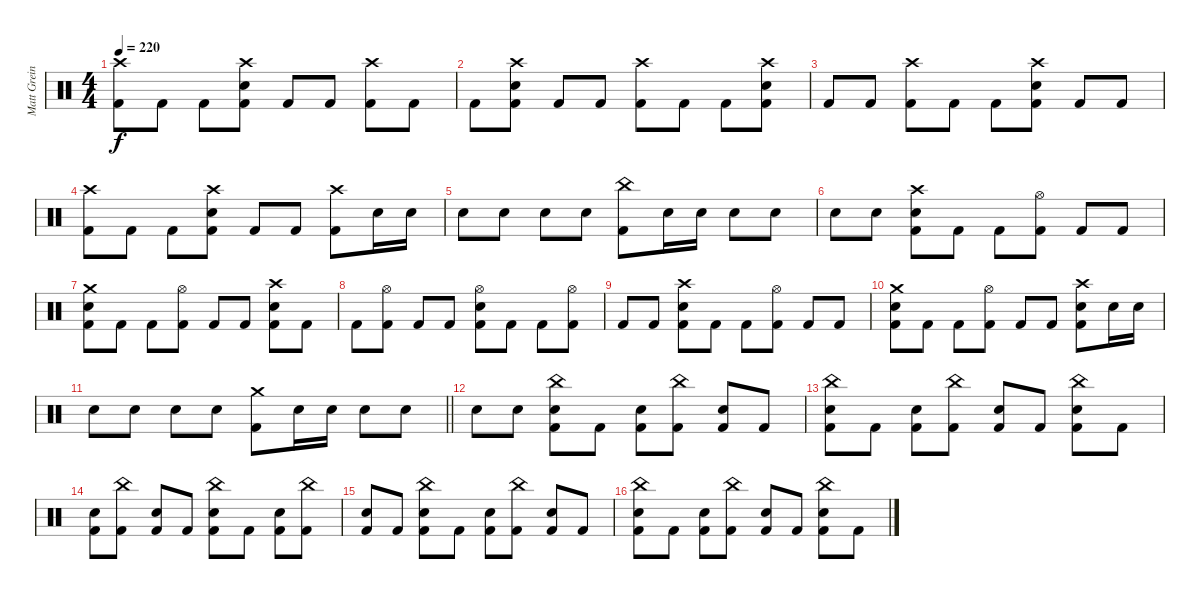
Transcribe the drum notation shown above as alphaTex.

\track ("Matt Greiner (Drums)" "Matt Grein") {instrument percussion}
\staff {score}
\articulation defaults
\ts (4 4)
\tempo 220
\clef neutral
\ks c
("Crash high (hit)" "Kick (hit) 2").8{dy f} "Kick (hit) 2".8 "Kick (hit) 2".8 ("Crash high (hit)" "Electric Snare (hit)" "Kick (hit) 2").8 "Kick (hit) 2".8 "Kick (hit) 2".8 ("Crash high (hit)" "Kick (hit) 2").8 "Kick (hit) 2".8 |
"Kick (hit) 2".8 ("Crash high (hit)" "Electric Snare (hit)" "Kick (hit) 2").8 "Kick (hit) 2".8 "Kick (hit) 2".8 ("Crash high (hit)" "Kick (hit) 2").8 "Kick (hit) 2".8 "Kick (hit) 2".8 ("Crash high (hit)" "Electric Snare (hit)" "Kick (hit) 2").8 |
"Kick (hit) 2".8 "Kick (hit) 2".8 ("Crash high (hit)" "Kick (hit) 2").8 "Kick (hit) 2".8 "Kick (hit) 2".8 ("Crash high (hit)" "Electric Snare (hit)" "Kick (hit) 2").8 "Kick (hit) 2".8 "Kick (hit) 2".8 |
("Crash high (hit)" "Kick (hit) 2").8 "Kick (hit) 2".8 "Kick (hit) 2".8 ("Crash high (hit)" "Electric Snare (hit)" "Kick (hit) 2").8 "Kick (hit) 2".8 "Kick (hit) 2".8 ("Crash high (hit)" "Kick (hit) 2").8 "Electric Snare (hit)".16 "Electric Snare (hit)".16 |
"Electric Snare (hit)".8 "Electric Snare (hit)".8 "Electric Snare (hit)".8 "Electric Snare (hit)".8 ("China (hit)" "Kick (hit) 2").8 "Electric Snare (hit)".16 "Electric Snare (hit)".16 "Electric Snare (hit)".8 "Electric Snare (hit)".8 |
"Electric Snare (hit)".8 "Electric Snare (hit)".8 ("Crash high (hit)" "Electric Snare (hit)" "Kick (hit) 2").8 "Kick (hit) 2".8 "Kick (hit) 2".8 ("Hi-Hat (open)" "Kick (hit) 2").8 "Kick (hit) 2".8 "Kick (hit) 2".8 |
("Crash medium (hit)" "Electric Snare (hit)" "Kick (hit) 2").8 "Kick (hit) 2".8 "Kick (hit) 2".8 ("Hi-Hat (open)" "Kick (hit) 2").8 "Kick (hit) 2".8 "Kick (hit) 2".8 ("Crash high (hit)" "Electric Snare (hit)" "Kick (hit) 2").8 "Kick (hit) 2".8 |
"Kick (hit) 2".8 ("Hi-Hat (open)" "Kick (hit) 2").8 "Kick (hit) 2".8 "Kick (hit) 2".8 ("Hi-Hat (open)" "Electric Snare (hit)" "Kick (hit) 2").8 "Kick (hit) 2".8 "Kick (hit) 2".8 ("Hi-Hat (open)" "Kick (hit) 2").8 |
"Kick (hit) 2".8 "Kick (hit) 2".8 ("Crash high (hit)" "Electric Snare (hit)" "Kick (hit) 2").8 "Kick (hit) 2".8 "Kick (hit) 2".8 ("Hi-Hat (open)" "Kick (hit) 2").8 "Kick (hit) 2".8 "Kick (hit) 2".8 |
("Crash medium (hit)" "Electric Snare (hit)" "Kick (hit) 2").8 "Kick (hit) 2".8 "Kick (hit) 2".8 ("Hi-Hat (open)" "Kick (hit) 2").8 "Kick (hit) 2".8 "Kick (hit) 2".8 ("Crash high (hit)" "Electric Snare (hit)" "Kick (hit) 2").8 "Electric Snare (hit)".16 "Electric Snare (hit)".16 |
\barLineRight lightlight "Electric Snare (hit)".8 "Electric Snare (hit)".8 "Electric Snare (hit)".8 "Electric Snare (hit)".8
("Crash medium (hit)" "Kick (hit) 2").8 "Electric Snare (hit)".16 "Electric Snare (hit)".16 "Electric Snare (hit)".8 "Electric Snare (hit)".8 |
"Electric Snare (hit)".8 "Electric Snare (hit)".8 ("China (hit)" "Electric Snare (hit)" "Kick (hit) 2").8 "Kick (hit) 2".8 ("Electric Snare (hit)" "Kick (hit) 2").8 ("China (hit)" "Kick (hit) 2").8 ("Electric Snare (hit)" "Kick (hit) 2").8 "Kick (hit) 2".8 |
("China (hit)" "Electric Snare (hit)" "Kick (hit) 2").8 "Kick (hit) 2".8 ("Electric Snare (hit)" "Kick (hit) 2").8 ("China (hit)" "Kick (hit) 2").8 ("Electric Snare (hit)" "Kick (hit) 2").8 "Kick (hit) 2".8 ("China (hit)" "Electric Snare (hit)" "Kick (hit) 2").8 "Kick (hit) 2".8 |
("Electric Snare (hit)" "Kick (hit) 2").8 ("China (hit)" "Kick (hit) 2").8 ("Electric Snare (hit)" "Kick (hit) 2").8 "Kick (hit) 2".8 ("China (hit)" "Electric Snare (hit)" "Kick (hit) 2").8 "Kick (hit) 2".8 ("Electric Snare (hit)" "Kick (hit) 2").8 ("China (hit)" "Kick (hit) 2").8 |
("Electric Snare (hit)" "Kick (hit) 2").8 "Kick (hit) 2".8 ("China (hit)" "Electric Snare (hit)" "Kick (hit) 2").8 "Kick (hit) 2".8 ("Electric Snare (hit)" "Kick (hit) 2").8 ("China (hit)" "Kick (hit) 2").8 ("Electric Snare (hit)" "Kick (hit) 2").8 "Kick (hit) 2".8 |
("China (hit)" "Electric Snare (hit)" "Kick (hit) 2").8 "Kick (hit) 2".8 ("Electric Snare (hit)" "Kick (hit) 2").8 ("China (hit)" "Kick (hit) 2").8 ("Electric Snare (hit)" "Kick (hit) 2").8 "Kick (hit) 2".8 ("China (hit)" "Electric Snare (hit)" "Kick (hit) 2").8 "Kick (hit) 2".8
